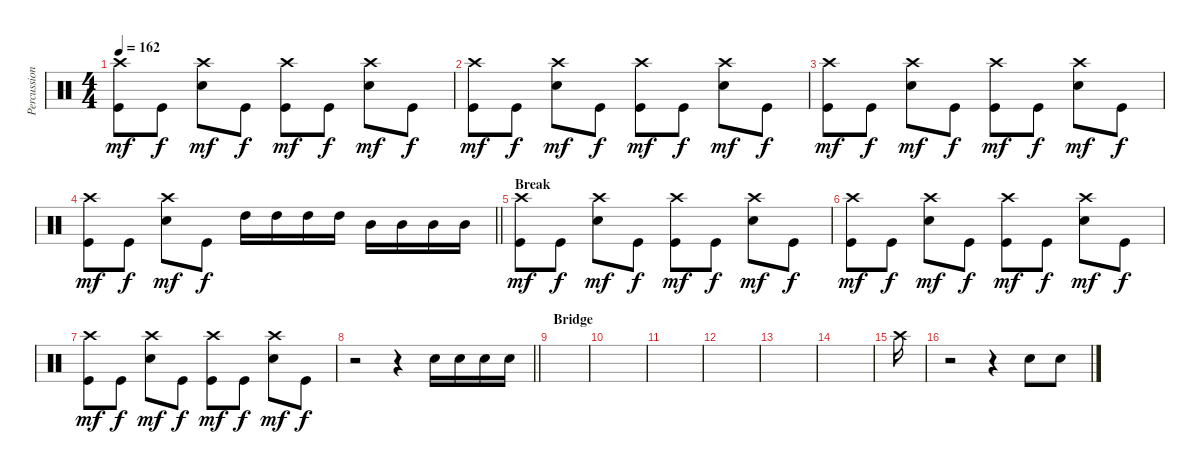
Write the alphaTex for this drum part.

\track ("Percussions" "Percussion") {instrument percussion}
\staff {score}
\articulation defaults
\ts (4 4)
\tempo 162
\clef neutral
\ks c
("Crash high (hit)" "Kick (hit)").8{dy mf} "Kick (hit)".8{dy f} ("Crash high (hit)" "Electric Snare (hit)").8{dy mf} "Kick (hit)".8{dy f} ("Crash high (hit)" "Kick (hit)").8{dy mf} "Kick (hit)".8{dy f} ("Crash high (hit)" "Electric Snare (hit)").8{dy mf} "Kick (hit)".8{dy f} |
("Crash high (hit)" "Kick (hit)").8{dy mf} "Kick (hit)".8{dy f} ("Crash high (hit)" "Electric Snare (hit)").8{dy mf} "Kick (hit)".8{dy f} ("Crash high (hit)" "Kick (hit)").8{dy mf} "Kick (hit)".8{dy f} ("Crash high (hit)" "Electric Snare (hit)").8{dy mf} "Kick (hit)".8{dy f} |
("Crash high (hit)" "Kick (hit)").8{dy mf} "Kick (hit)".8{dy f} ("Crash high (hit)" "Electric Snare (hit)").8{dy mf} "Kick (hit)".8{dy f} ("Crash high (hit)" "Kick (hit)").8{dy mf} "Kick (hit)".8{dy f} ("Crash high (hit)" "Electric Snare (hit)").8{dy mf} "Kick (hit)".8{dy f} |
\barLineRight lightlight
("Crash high (hit)" "Kick (hit)").8{dy mf} "Kick (hit)".8{dy f} ("Crash high (hit)" "Electric Snare (hit)").8{dy mf} "Kick (hit)".8{dy f} "High Tom (hit)".16 "High Tom (hit)".16 "High Tom (hit)".16 "High Tom (hit)".16 "Mid Tom (hit)".16 "Mid Tom (hit)".16 "Mid Tom (hit)".16 "Mid Tom (hit)".16 |
\section ("" "Break")
("Crash high (hit)" "Kick (hit)").8{dy mf} "Kick (hit)".8{dy f} ("Crash high (hit)" "Electric Snare (hit)").8{dy mf} "Kick (hit)".8{dy f} ("Crash high (hit)" "Kick (hit)").8{dy mf} "Kick (hit)".8{dy f} ("Crash high (hit)" "Electric Snare (hit)").8{dy mf} "Kick (hit)".8{dy f} |
("Crash high (hit)" "Kick (hit)").8{dy mf} "Kick (hit)".8{dy f} ("Crash high (hit)" "Electric Snare (hit)").8{dy mf} "Kick (hit)".8{dy f} ("Crash high (hit)" "Kick (hit)").8{dy mf} "Kick (hit)".8{dy f} ("Crash high (hit)" "Electric Snare (hit)").8{dy mf} "Kick (hit)".8{dy f} |
("Crash high (hit)" "Kick (hit)").8{dy mf} "Kick (hit)".8{dy f} ("Crash high (hit)" "Electric Snare (hit)").8{dy mf} "Kick (hit)".8{dy f} ("Crash high (hit)" "Kick (hit)").8{dy mf} "Kick (hit)".8{dy f} ("Crash high (hit)" "Electric Snare (hit)").8{dy mf} "Kick (hit)".8{dy f} |
\barLineRight lightlight
r.2 r.4 "Snare (hit) 2".16 "Snare (hit) 2".16 "Snare (hit) 2".16 "Snare (hit) 2".16 |
\section ("" "Bridge")
|
|
|
|
|
|
"Crash high (hit)".16 |
r.2 r.4 "Electric Snare (hit)".8 "Electric Snare (hit)".8
